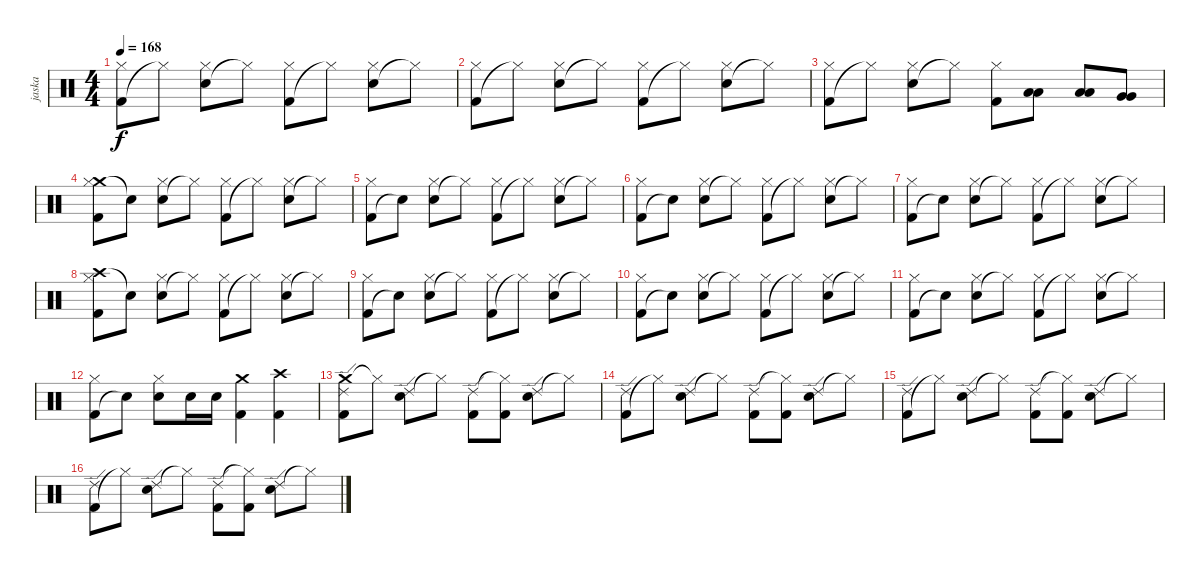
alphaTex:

\track ("jaska" "jaska") {instrument percussion}
\staff
\articulation defaults
\ts (4 4)
\tempo 168
\clef neutral
\ks c
("Kick (hit) 2" "Hi-Hat (closed)").8{dy f} "Hi-Hat (closed)"{t}.8 ("Electric Snare (hit)" "Hi-Hat (closed)").8 "Hi-Hat (closed)"{t}.8 ("Kick (hit) 2" "Hi-Hat (closed)").8 "Hi-Hat (closed)"{t}.8 ("Electric Snare (hit)" "Hi-Hat (closed)").8 "Hi-Hat (closed)"{t}.8 |
("Kick (hit) 2" "Hi-Hat (closed)").8 "Hi-Hat (closed)"{t}.8 ("Electric Snare (hit)" "Hi-Hat (closed)").8 "Hi-Hat (closed)"{t}.8 ("Kick (hit) 2" "Hi-Hat (closed)").8 "Hi-Hat (closed)"{t}.8 ("Electric Snare (hit)" "Hi-Hat (closed)").8 "Hi-Hat (closed)"{t}.8 |
("Kick (hit) 2" "Hi-Hat (closed)").8 "Hi-Hat (closed)"{t}.8 ("Electric Snare (hit)" "Hi-Hat (closed)").8 "Hi-Hat (closed)"{t}.8 ("Kick (hit) 2" "Hi-Hat (closed)").8 ("Low Tom (hit)" "Low Tom (hit)").8 ("Low Tom (hit)" "Low Tom (hit)").8 ("Very Low Tom (hit)" "Very Low Tom (hit)").8 |
("Crash medium (hit)" "Kick (hit) 2" "Hi-Hat (closed)").8 "Snare (hit)"{t}.8 ("Electric Snare (hit)" "Hi-Hat (closed)").8 "Hi-Hat (closed)"{t}.8 ("Kick (hit) 2" "Hi-Hat (closed)").8 "Hi-Hat (closed)"{t}.8 ("Electric Snare (hit)" "Hi-Hat (closed)").8 "Hi-Hat (closed)"{t}.8 |
("Kick (hit) 2" "Hi-Hat (closed)").8 "Snare (hit)"{t}.8 ("Electric Snare (hit)" "Hi-Hat (closed)").8 "Hi-Hat (closed)"{t}.8 ("Kick (hit) 2" "Hi-Hat (closed)").8 "Hi-Hat (closed)"{t}.8 ("Electric Snare (hit)" "Hi-Hat (closed)").8 "Hi-Hat (closed)"{t}.8 |
("Kick (hit) 2" "Hi-Hat (closed)").8 "Snare (hit)"{t}.8 ("Electric Snare (hit)" "Hi-Hat (closed)").8 "Hi-Hat (closed)"{t}.8 ("Kick (hit) 2" "Hi-Hat (closed)").8 "Hi-Hat (closed)"{t}.8 ("Electric Snare (hit)" "Hi-Hat (closed)").8 "Hi-Hat (closed)"{t}.8 |
("Kick (hit) 2" "Hi-Hat (closed)").8 "Snare (hit)"{t}.8 ("Electric Snare (hit)" "Hi-Hat (closed)").8 "Hi-Hat (closed)"{t}.8 ("Kick (hit) 2" "Hi-Hat (closed)").8 "Hi-Hat (closed)"{t}.8 ("Electric Snare (hit)" "Hi-Hat (closed)").8 "Hi-Hat (closed)"{t}.8 |
("Crash high (hit)" "Kick (hit) 2" "Hi-Hat (closed)").8 "Snare (hit)"{t}.8 ("Electric Snare (hit)" "Hi-Hat (closed)").8 "Hi-Hat (closed)"{t}.8 ("Kick (hit) 2" "Hi-Hat (closed)").8 "Hi-Hat (closed)"{t}.8 ("Electric Snare (hit)" "Hi-Hat (closed)").8 "Hi-Hat (closed)"{t}.8 |
("Kick (hit) 2" "Hi-Hat (closed)").8 "Snare (hit)"{t}.8 ("Electric Snare (hit)" "Hi-Hat (closed)").8 "Hi-Hat (closed)"{t}.8 ("Kick (hit) 2" "Hi-Hat (closed)").8 "Hi-Hat (closed)"{t}.8 ("Electric Snare (hit)" "Hi-Hat (closed)").8 "Hi-Hat (closed)"{t}.8 |
("Kick (hit) 2" "Hi-Hat (closed)").8 "Snare (hit)"{t}.8 ("Electric Snare (hit)" "Hi-Hat (closed)").8 "Hi-Hat (closed)"{t}.8 ("Kick (hit) 2" "Hi-Hat (closed)").8 "Hi-Hat (closed)"{t}.8 ("Electric Snare (hit)" "Hi-Hat (closed)").8 "Hi-Hat (closed)"{t}.8 |
("Kick (hit) 2" "Hi-Hat (closed)").8 "Snare (hit)"{t}.8 ("Electric Snare (hit)" "Hi-Hat (closed)").8 "Hi-Hat (closed)"{t}.8 ("Kick (hit) 2" "Hi-Hat (closed)").8 "Hi-Hat (closed)"{t}.8 ("Electric Snare (hit)" "Hi-Hat (closed)").8 "Hi-Hat (closed)"{t}.8 |
("Kick (hit) 2" "Hi-Hat (closed)").8 "Snare (hit)"{t}.8 ("Electric Snare (hit)" "Hi-Hat (closed)").8 "Electric Snare (hit)".16 "Electric Snare (hit)".16 ("Crash medium (hit)" "Kick (hit) 2").4 ("Crash high (hit)" "Kick (hit) 2").4 |
("Crash medium (hit)" "Kick (hit) 2" "Ride (edge) 2").8 "Hi-Hat (closed)"{t}.8 ("Electric Snare (hit)" "Ride (edge) 2").8 "Hi-Hat (closed)"{t}.8 ("Kick (hit) 2" "Ride (edge) 2").8 ("Kick (hit) 2" "Hi-Hat (closed)"{t}).8 ("Electric Snare (hit)" "Ride (edge) 2").8 "Hi-Hat (closed)"{t}.8 |
("Kick (hit) 2" "Ride (edge) 2").8 "Hi-Hat (closed)"{t}.8 ("Electric Snare (hit)" "Ride (edge) 2").8 "Hi-Hat (closed)"{t}.8 ("Kick (hit) 2" "Ride (edge) 2").8 ("Kick (hit) 2" "Hi-Hat (closed)"{t}).8 ("Electric Snare (hit)" "Ride (edge) 2").8 "Hi-Hat (closed)"{t}.8 |
("Kick (hit) 2" "Ride (edge) 2").8 "Hi-Hat (closed)"{t}.8 ("Electric Snare (hit)" "Ride (edge) 2").8 "Hi-Hat (closed)"{t}.8 ("Kick (hit) 2" "Ride (edge) 2").8 ("Kick (hit) 2" "Hi-Hat (closed)"{t}).8 ("Electric Snare (hit)" "Ride (edge) 2").8 "Hi-Hat (closed)"{t}.8 |
("Kick (hit) 2" "Ride (edge) 2").8 "Hi-Hat (closed)"{t}.8 ("Electric Snare (hit)" "Ride (edge) 2").8 "Hi-Hat (closed)"{t}.8 ("Kick (hit) 2" "Ride (edge) 2").8 ("Kick (hit) 2" "Hi-Hat (closed)"{t}).8 ("Electric Snare (hit)" "Ride (edge) 2").8 "Hi-Hat (closed)"{t}.8
